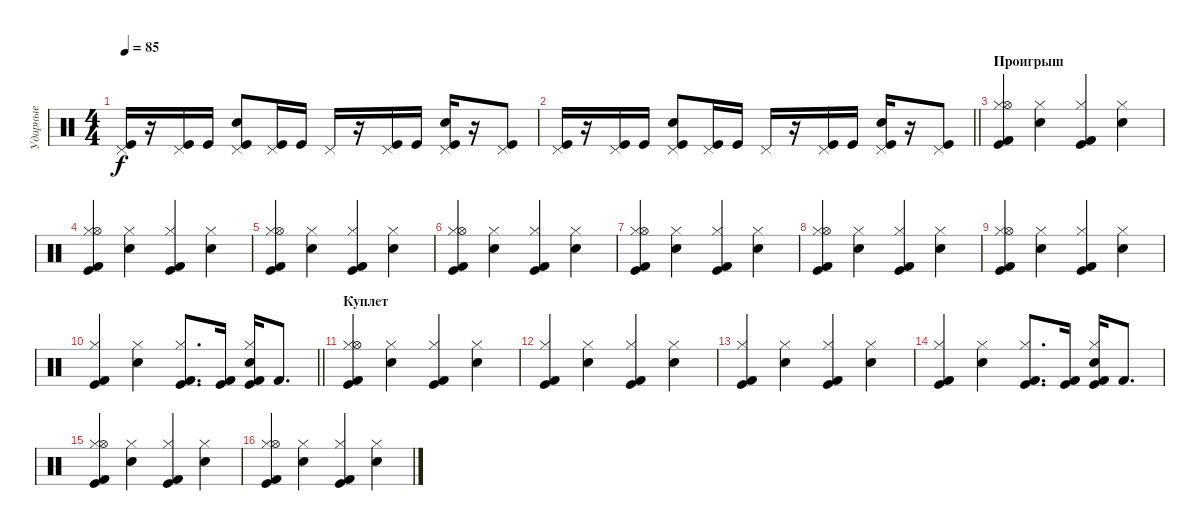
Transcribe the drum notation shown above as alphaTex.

\track ("Ударные" "Ударные") {instrument percussion}
\staff {score}
\articulation defaults
\ts (4 4)
\tempo 85
\clef neutral
\ks c
("Kick (hit)" "Pedal Hi-Hat (hit)").16{dy f} r.16 ("Kick (hit)" "Pedal Hi-Hat (hit)").16 "Kick (hit)".16 ("Kick (hit)" "Pedal Hi-Hat (hit)" "Electric Snare (hit)").8 ("Kick (hit)" "Pedal Hi-Hat (hit)").16 "Kick (hit)".16 "Pedal Hi-Hat (hit)".16 r.16 ("Kick (hit)" "Pedal Hi-Hat (hit)").16 "Kick (hit)".16 ("Kick (hit)" "Pedal Hi-Hat (hit)" "Electric Snare (hit)").16 r.16 ("Kick (hit)" "Pedal Hi-Hat (hit)").8 |
\barLineRight lightlight
("Kick (hit)" "Pedal Hi-Hat (hit)").16 r.16 ("Kick (hit)" "Pedal Hi-Hat (hit)").16 "Kick (hit)".16 ("Kick (hit)" "Pedal Hi-Hat (hit)" "Electric Snare (hit)").8 ("Kick (hit)" "Pedal Hi-Hat (hit)").16 "Kick (hit)".16 "Pedal Hi-Hat (hit)".16 r.16 ("Kick (hit)" "Pedal Hi-Hat (hit)").16 "Kick (hit)".16 ("Kick (hit)" "Pedal Hi-Hat (hit)" "Electric Snare (hit)").16 r.16 ("Kick (hit)" "Pedal Hi-Hat (hit)").8 |
\section ("" "Проигрыш")
("Hi-Hat (closed)" "Hi-Hat (open)" "Kick (hit)" "Kick (hit) 2").4 ("Hi-Hat (closed)" "Electric Snare (hit)").4 ("Hi-Hat (closed)" "Kick (hit)" "Kick (hit) 2").4 ("Hi-Hat (closed)" "Electric Snare (hit)").4 |
("Hi-Hat (closed)" "Hi-Hat (open)" "Kick (hit)" "Kick (hit) 2").4 ("Hi-Hat (closed)" "Electric Snare (hit)").4 ("Hi-Hat (closed)" "Kick (hit)" "Kick (hit) 2").4 ("Hi-Hat (closed)" "Electric Snare (hit)").4 |
("Hi-Hat (closed)" "Hi-Hat (open)" "Kick (hit)" "Kick (hit) 2").4 ("Hi-Hat (closed)" "Electric Snare (hit)").4 ("Hi-Hat (closed)" "Kick (hit)" "Kick (hit) 2").4 ("Hi-Hat (closed)" "Electric Snare (hit)").4 |
("Hi-Hat (closed)" "Hi-Hat (open)" "Kick (hit)" "Kick (hit) 2").4 ("Hi-Hat (closed)" "Electric Snare (hit)").4 ("Hi-Hat (closed)" "Kick (hit)" "Kick (hit) 2").4 ("Hi-Hat (closed)" "Electric Snare (hit)").4 |
("Hi-Hat (closed)" "Hi-Hat (open)" "Kick (hit)" "Kick (hit) 2").4 ("Hi-Hat (closed)" "Electric Snare (hit)").4 ("Hi-Hat (closed)" "Kick (hit)" "Kick (hit) 2").4 ("Hi-Hat (closed)" "Electric Snare (hit)").4 |
("Hi-Hat (closed)" "Hi-Hat (open)" "Kick (hit)" "Kick (hit) 2").4 ("Hi-Hat (closed)" "Electric Snare (hit)").4 ("Hi-Hat (closed)" "Kick (hit)" "Kick (hit) 2").4 ("Hi-Hat (closed)" "Electric Snare (hit)").4 |
("Hi-Hat (closed)" "Hi-Hat (open)" "Kick (hit)" "Kick (hit) 2").4 ("Hi-Hat (closed)" "Electric Snare (hit)").4 ("Hi-Hat (closed)" "Kick (hit)" "Kick (hit) 2").4 ("Hi-Hat (closed)" "Electric Snare (hit)").4 |
\barLineRight lightlight
("Hi-Hat (closed)" "Kick (hit)" "Kick (hit) 2").4 ("Hi-Hat (closed)" "Electric Snare (hit)").4 ("Hi-Hat (closed)" "Kick (hit)" "Kick (hit) 2").8{d} ("Kick (hit)" "Kick (hit) 2").16 ("Hi-Hat (closed)" "Electric Snare (hit)" "Kick (hit)" "Kick (hit) 2").16 "Kick (hit) 2".8{d} |
\section ("" "Куплет")
("Hi-Hat (closed)" "Hi-Hat (open)" "Kick (hit)" "Kick (hit) 2").4 ("Hi-Hat (closed)" "Electric Snare (hit)").4 ("Hi-Hat (closed)" "Kick (hit)" "Kick (hit) 2").4 ("Hi-Hat (closed)" "Electric Snare (hit)").4 |
("Hi-Hat (closed)" "Kick (hit)" "Kick (hit) 2").4 ("Hi-Hat (closed)" "Electric Snare (hit)").4 ("Hi-Hat (closed)" "Kick (hit)" "Kick (hit) 2").4 ("Hi-Hat (closed)" "Electric Snare (hit)").4 |
("Hi-Hat (closed)" "Kick (hit)" "Kick (hit) 2").4 ("Hi-Hat (closed)" "Electric Snare (hit)").4 ("Hi-Hat (closed)" "Kick (hit)" "Kick (hit) 2").4 ("Hi-Hat (closed)" "Electric Snare (hit)").4 |
("Hi-Hat (closed)" "Kick (hit)" "Kick (hit) 2").4 ("Hi-Hat (closed)" "Electric Snare (hit)").4 ("Hi-Hat (closed)" "Kick (hit)" "Kick (hit) 2").8{d} ("Kick (hit)" "Kick (hit) 2").16 ("Hi-Hat (closed)" "Electric Snare (hit)" "Kick (hit)" "Kick (hit) 2").16 "Kick (hit) 2".8{d} |
("Hi-Hat (closed)" "Hi-Hat (open)" "Kick (hit)" "Kick (hit) 2").4 ("Hi-Hat (closed)" "Electric Snare (hit)").4 ("Hi-Hat (closed)" "Kick (hit)" "Kick (hit) 2").4 ("Hi-Hat (closed)" "Electric Snare (hit)").4 |
("Hi-Hat (closed)" "Hi-Hat (open)" "Kick (hit)" "Kick (hit) 2").4 ("Hi-Hat (closed)" "Electric Snare (hit)").4 ("Hi-Hat (closed)" "Kick (hit)" "Kick (hit) 2").4 ("Hi-Hat (closed)" "Electric Snare (hit)").4
